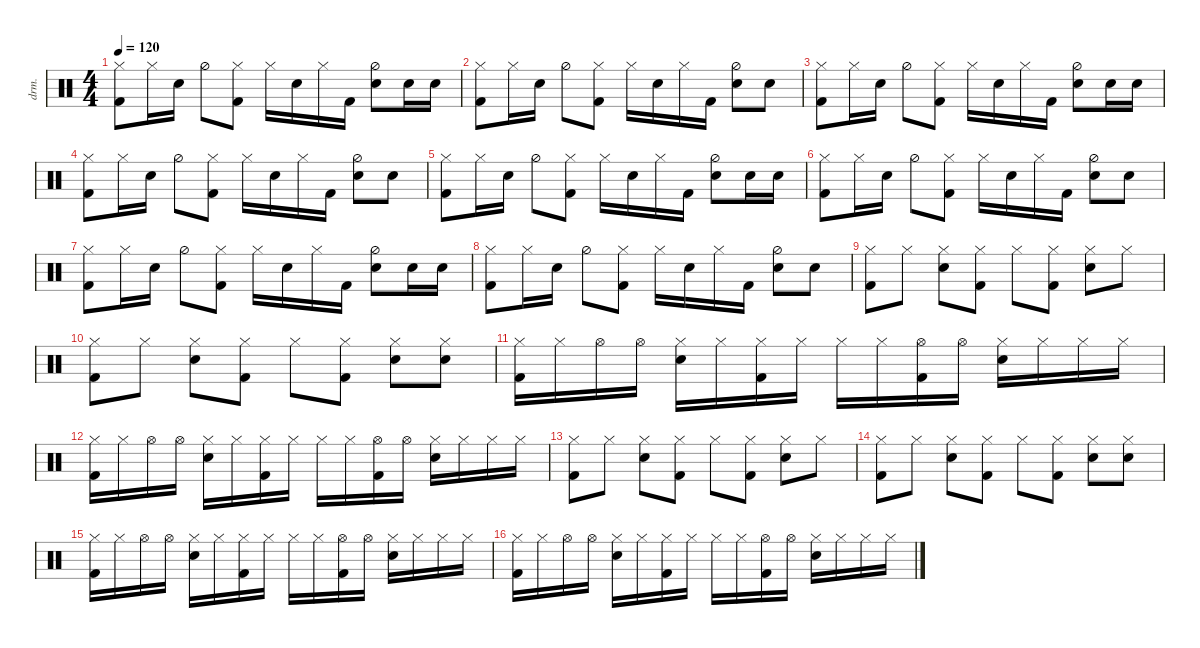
\defaultSystemsLayout 4
\hideDynamics
\bracketExtendMode nobrackets
\otherSystemsTrackNameOrientation horizontal
\track ("Drumkit" "drm.") {instrument percussion}
\staff {score}
\articulation defaults
\ts (4 4)
\tempo 120
\clef neutral
\ks c
("Kick (hit) 2" "Hi-Hat (closed)").8{dy mf beam Down} "Hi-Hat (closed)".16{beam Down} "Snare (hit) 2".16{beam Down} "Hi-Hat (half)".8{beam Down} ("Kick (hit) 2" "Hi-Hat (closed)").8{beam Down} "Hi-Hat (closed)".16{beam Down} "Snare (hit) 2".16{beam Down} "Hi-Hat (closed)".16{beam Down} "Kick (hit) 2".16{beam Down} ("Snare (hit) 2" "Hi-Hat (half)").8{beam Down} "Snare (hit) 2".16{beam Down} "Snare (hit) 2".16{beam Down} |
("Kick (hit) 2" "Hi-Hat (closed)").8{beam Down} "Hi-Hat (closed)".16{beam Down} "Snare (hit) 2".16{beam Down} "Hi-Hat (half)".8{beam Down} ("Kick (hit) 2" "Hi-Hat (closed)").8{beam Down} "Hi-Hat (closed)".16{beam Down} "Snare (hit) 2".16{beam Down} "Hi-Hat (closed)".16{beam Down} "Kick (hit) 2".16{beam Down} ("Snare (hit) 2" "Hi-Hat (half)").8{beam Down} "Snare (hit) 2".8{beam Down} |
("Kick (hit) 2" "Hi-Hat (closed)").8{beam Down} "Hi-Hat (closed)".16{beam Down} "Snare (hit) 2".16{beam Down} "Hi-Hat (half)".8{beam Down} ("Kick (hit) 2" "Hi-Hat (closed)").8{beam Down} "Hi-Hat (closed)".16{beam Down} "Snare (hit) 2".16{beam Down} "Hi-Hat (closed)".16{beam Down} "Kick (hit) 2".16{beam Down} ("Snare (hit) 2" "Hi-Hat (half)").8{beam Down} "Snare (hit) 2".16{beam Down} "Snare (hit) 2".16{beam Down} |
("Kick (hit) 2" "Hi-Hat (closed)").8{beam Down} "Hi-Hat (closed)".16{beam Down} "Snare (hit) 2".16{beam Down} "Hi-Hat (half)".8{beam Down} ("Kick (hit) 2" "Hi-Hat (closed)").8{beam Down} "Hi-Hat (closed)".16{beam Down} "Snare (hit) 2".16{beam Down} "Hi-Hat (closed)".16{beam Down} "Kick (hit) 2".16{beam Down} ("Snare (hit) 2" "Hi-Hat (half)").8{beam Down} "Snare (hit) 2".8{beam Down} |
("Kick (hit) 2" "Hi-Hat (closed)").8{beam Down} "Hi-Hat (closed)".16{beam Down} "Snare (hit) 2".16{beam Down} "Hi-Hat (half)".8{beam Down} ("Kick (hit) 2" "Hi-Hat (closed)").8{beam Down} "Hi-Hat (closed)".16{beam Down} "Snare (hit) 2".16{beam Down} "Hi-Hat (closed)".16{beam Down} "Kick (hit) 2".16{beam Down} ("Snare (hit) 2" "Hi-Hat (half)").8{beam Down} "Snare (hit) 2".16{beam Down} "Snare (hit) 2".16{beam Down} |
("Kick (hit) 2" "Hi-Hat (closed)").8{beam Down} "Hi-Hat (closed)".16{beam Down} "Snare (hit) 2".16{beam Down} "Hi-Hat (half)".8{beam Down} ("Kick (hit) 2" "Hi-Hat (closed)").8{beam Down} "Hi-Hat (closed)".16{beam Down} "Snare (hit) 2".16{beam Down} "Hi-Hat (closed)".16{beam Down} "Kick (hit) 2".16{beam Down} ("Snare (hit) 2" "Hi-Hat (half)").8{beam Down} "Snare (hit) 2".8{beam Down} |
("Kick (hit) 2" "Hi-Hat (closed)").8{beam Down} "Hi-Hat (closed)".16{beam Down} "Snare (hit) 2".16{beam Down} "Hi-Hat (half)".8{beam Down} ("Kick (hit) 2" "Hi-Hat (closed)").8{beam Down} "Hi-Hat (closed)".16{beam Down} "Snare (hit) 2".16{beam Down} "Hi-Hat (closed)".16{beam Down} "Kick (hit) 2".16{beam Down} ("Snare (hit) 2" "Hi-Hat (half)").8{beam Down} "Snare (hit) 2".16{beam Down} "Snare (hit) 2".16{beam Down} |
("Kick (hit) 2" "Hi-Hat (closed)").8{beam Down} "Hi-Hat (closed)".16{beam Down} "Snare (hit) 2".16{beam Down} "Hi-Hat (half)".8{beam Down} ("Kick (hit) 2" "Hi-Hat (closed)").8{beam Down} "Hi-Hat (closed)".16{beam Down} "Snare (hit) 2".16{beam Down} "Hi-Hat (closed)".16{beam Down} "Kick (hit) 2".16{beam Down} ("Snare (hit) 2" "Hi-Hat (half)").8{beam Down} "Snare (hit) 2".8{beam Down} |
("Hi-Hat (closed)" "Kick (hit) 2").8{beam Down} "Hi-Hat (closed)".8{beam Down} ("Hi-Hat (closed)" "Snare (hit) 2").8{beam Down} ("Hi-Hat (closed)" "Kick (hit) 2").8{beam Down} "Hi-Hat (closed)".8{beam Down} ("Hi-Hat (closed)" "Kick (hit) 2").8{beam Down} ("Hi-Hat (closed)" "Snare (hit) 2").8{beam Down} "Hi-Hat (closed)".8{beam Down} |
("Hi-Hat (closed)" "Kick (hit) 2").8{beam Down} "Hi-Hat (closed)".8{beam Down} ("Hi-Hat (closed)" "Snare (hit) 2").8{beam Down} ("Hi-Hat (closed)" "Kick (hit) 2").8{beam Down} "Hi-Hat (closed)".8{beam Down} ("Hi-Hat (closed)" "Kick (hit) 2").8{beam Down} ("Hi-Hat (closed)" "Snare (hit) 2").8{beam Down} ("Snare (hit) 2" "Hi-Hat (closed)").8{beam Down} |
("Hi-Hat (closed)" "Kick (hit) 2").16{beam Down} "Hi-Hat (closed)".16{beam Down} "Hi-Hat (open)".16{beam Down} "Hi-Hat (open)".16{beam Down} ("Hi-Hat (closed)" "Snare (hit) 2").16{beam Down} "Hi-Hat (closed)".16{beam Down} ("Hi-Hat (closed)" "Kick (hit) 2").16{beam Down} "Hi-Hat (closed)".16{beam Down} "Hi-Hat (closed)".16{beam Down} "Hi-Hat (closed)".16{beam Down} ("Hi-Hat (open)" "Kick (hit) 2").16{beam Down} "Hi-Hat (open)".16{beam Down} ("Hi-Hat (closed)" "Snare (hit) 2").16{beam Down} "Hi-Hat (closed)".16{beam Down} "Hi-Hat (closed)".16{beam Down} "Hi-Hat (closed)".16{beam Down} |
("Hi-Hat (closed)" "Kick (hit) 2").16{beam Down} "Hi-Hat (closed)".16{beam Down} "Hi-Hat (open)".16{beam Down} "Hi-Hat (open)".16{beam Down} ("Hi-Hat (closed)" "Snare (hit) 2").16{beam Down} "Hi-Hat (closed)".16{beam Down} ("Hi-Hat (closed)" "Kick (hit) 2").16{beam Down} "Hi-Hat (closed)".16{beam Down} "Hi-Hat (closed)".16{beam Down} "Hi-Hat (closed)".16{beam Down} ("Hi-Hat (open)" "Kick (hit) 2").16{beam Down} "Hi-Hat (open)".16{beam Down} ("Hi-Hat (closed)" "Snare (hit) 2").16{beam Down} "Hi-Hat (closed)".16{beam Down} "Hi-Hat (closed)".16{beam Down} "Hi-Hat (closed)".16{beam Down} |
("Hi-Hat (closed)" "Kick (hit) 2").8{beam Down} "Hi-Hat (closed)".8{beam Down} ("Hi-Hat (closed)" "Snare (hit) 2").8{beam Down} ("Hi-Hat (closed)" "Kick (hit) 2").8{beam Down} "Hi-Hat (closed)".8{beam Down} ("Hi-Hat (closed)" "Kick (hit) 2").8{beam Down} ("Hi-Hat (closed)" "Snare (hit) 2").8{beam Down} "Hi-Hat (closed)".8{beam Down} |
("Hi-Hat (closed)" "Kick (hit) 2").8{beam Down} "Hi-Hat (closed)".8{beam Down} ("Hi-Hat (closed)" "Snare (hit) 2").8{beam Down} ("Hi-Hat (closed)" "Kick (hit) 2").8{beam Down} "Hi-Hat (closed)".8{beam Down} ("Hi-Hat (closed)" "Kick (hit) 2").8{beam Down} ("Hi-Hat (closed)" "Snare (hit) 2").8{beam Down} ("Snare (hit) 2" "Hi-Hat (closed)").8{beam Down} |
("Hi-Hat (closed)" "Kick (hit) 2").16{beam Down} "Hi-Hat (closed)".16{beam Down} "Hi-Hat (open)".16{beam Down} "Hi-Hat (open)".16{beam Down} ("Hi-Hat (closed)" "Snare (hit) 2").16{beam Down} "Hi-Hat (closed)".16{beam Down} ("Hi-Hat (closed)" "Kick (hit) 2").16{beam Down} "Hi-Hat (closed)".16{beam Down} "Hi-Hat (closed)".16{beam Down} "Hi-Hat (closed)".16{beam Down} ("Hi-Hat (open)" "Kick (hit) 2").16{beam Down} "Hi-Hat (open)".16{beam Down} ("Hi-Hat (closed)" "Snare (hit) 2").16{beam Down} "Hi-Hat (closed)".16{beam Down} "Hi-Hat (closed)".16{beam Down} "Hi-Hat (closed)".16{beam Down} |
("Hi-Hat (closed)" "Kick (hit) 2").16{beam Down} "Hi-Hat (closed)".16{beam Down} "Hi-Hat (open)".16{beam Down} "Hi-Hat (open)".16{beam Down} ("Hi-Hat (closed)" "Snare (hit) 2").16{beam Down} "Hi-Hat (closed)".16{beam Down} ("Hi-Hat (closed)" "Kick (hit) 2").16{beam Down} "Hi-Hat (closed)".16{beam Down} "Hi-Hat (closed)".16{beam Down} "Hi-Hat (closed)".16{beam Down} ("Hi-Hat (open)" "Kick (hit) 2").16{beam Down} "Hi-Hat (open)".16{beam Down} ("Hi-Hat (closed)" "Snare (hit) 2").16{beam Down} "Hi-Hat (closed)".16{beam Down} "Hi-Hat (closed)".16{beam Down} "Hi-Hat (closed)".16{beam Down}
